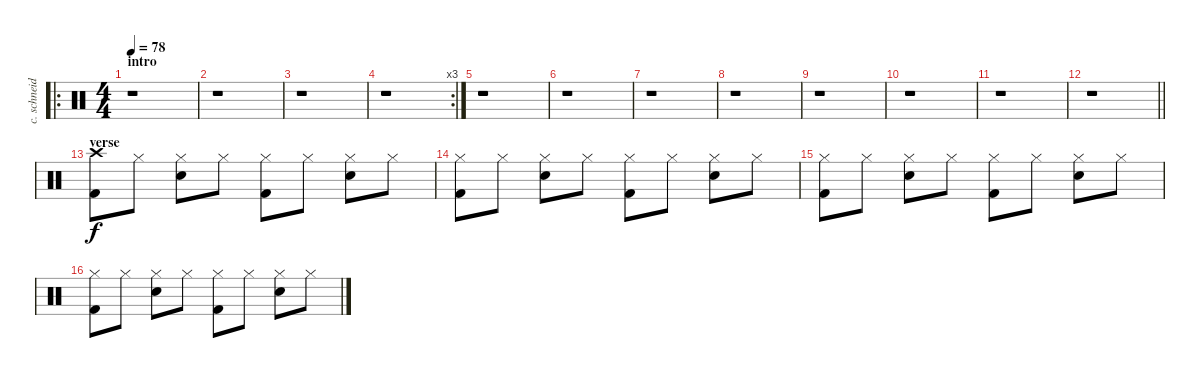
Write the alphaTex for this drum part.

\track ("c. schneider - drums" "c. schneid") {instrument percussion}
\staff {score}
\articulation defaults
\ro
\ts (4 4)
\section ("" "intro")
\tempo 78
\clef neutral
\ks c
r.1{dy f} |
r.1 |
r.1 |
\rc 3
r.1 |
r.1 |
r.1 |
r.1 |
r.1 |
r.1 |
r.1 |
r.1 |
\barLineRight lightlight
r.1 |
\section ("" "verse")
("Crash high (hit)" "Kick (hit) 2").8 "Hi-Hat (closed)".8 ("Hi-Hat (closed)" "Snare (hit) 2").8 "Hi-Hat (closed)".8 ("Hi-Hat (closed)" "Kick (hit) 2").8 "Hi-Hat (closed)".8 ("Hi-Hat (closed)" "Snare (hit) 2").8 "Hi-Hat (closed)".8 |
("Hi-Hat (closed)" "Kick (hit) 2").8 "Hi-Hat (closed)".8 ("Hi-Hat (closed)" "Snare (hit) 2").8 "Hi-Hat (closed)".8 ("Hi-Hat (closed)" "Kick (hit) 2").8 "Hi-Hat (closed)".8 ("Hi-Hat (closed)" "Snare (hit) 2").8 "Hi-Hat (closed)".8 |
("Hi-Hat (closed)" "Kick (hit) 2").8 "Hi-Hat (closed)".8 ("Hi-Hat (closed)" "Snare (hit) 2").8 "Hi-Hat (closed)".8 ("Hi-Hat (closed)" "Kick (hit) 2").8 "Hi-Hat (closed)".8 ("Hi-Hat (closed)" "Snare (hit) 2").8 "Hi-Hat (closed)".8 |
("Hi-Hat (closed)" "Kick (hit) 2").8 "Hi-Hat (closed)".8 ("Hi-Hat (closed)" "Snare (hit) 2").8 "Hi-Hat (closed)".8 ("Hi-Hat (closed)" "Kick (hit) 2").8 "Hi-Hat (closed)".8 ("Hi-Hat (closed)" "Snare (hit) 2").8 "Hi-Hat (closed)".8
